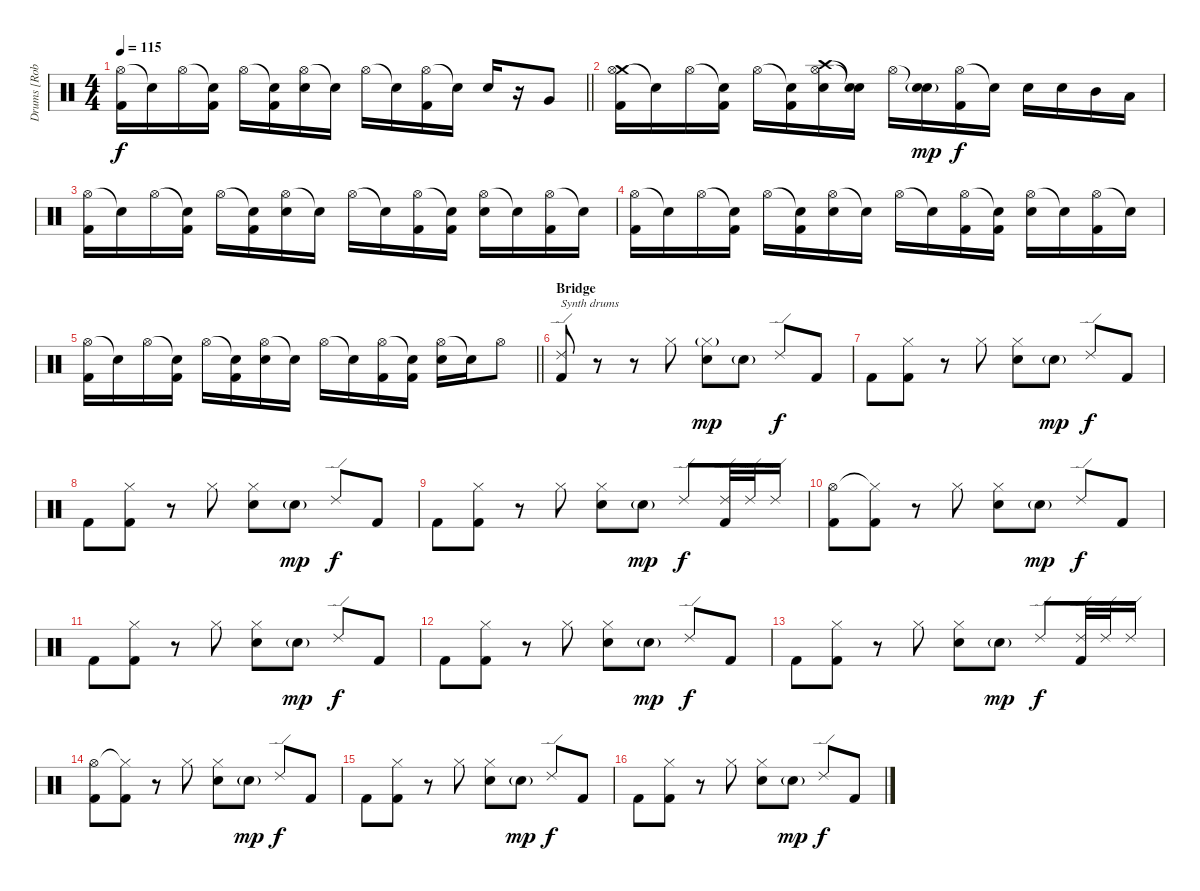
\track ("Drums [Rob Bourdon]" "Drums [Rob") {instrument percussion}
\staff {score}
\articulation defaults
\ts (4 4)
\tempo 115
\clef neutral
\barLineRight lightlight
\ks c
("Hi-Hat (open)" "Kick (hit) 2").16{dy f} "Snare (hit)"{t}.16 "Hi-Hat (open)".16 ("Snare (hit)"{t} "Kick (hit) 2").16 "Hi-Hat (open)".16 ("Snare (hit)"{t} "Kick (hit) 2").16 ("Hi-Hat (open)" "Electric Snare (hit)").16 "Snare (hit)"{t}.16 "Hi-Hat (open)".16 "Snare (hit)"{t}.16 ("Hi-Hat (open)" "Kick (hit) 2").16 "Snare (hit)"{t}.16 "Electric Snare (hit)".16 r.16 "Very Low Tom (hit)".8 |
("Crash medium (hit)" "Hi-Hat (open)" "Kick (hit) 2").16 "Snare (hit)"{t}.16 "Hi-Hat (open)".16 ("Snare (hit)"{t} "Kick (hit) 2").16 "Hi-Hat (open)".16 ("Snare (hit)"{t} "Kick (hit) 2").16 ("Crash high (hit)" "Hi-Hat (open)" "Electric Snare (hit)").16 ("Snare (hit)"{t} "Snare (hit)"{t}).16 "Hi-Hat (open)".16 ("Snare (hit)"{t} "Electric Snare (hit)"{g}).16{dy mp} ("Hi-Hat (open)" "Kick (hit) 2").16{dy f} "Snare (hit)"{t}.16 "Electric Snare (hit)".16 "Electric Snare (hit)".16 "Mid Tom (hit)".16 "Low Tom (hit)".16 |
("Hi-Hat (open)" "Kick (hit) 2").16 "Snare (hit)"{t}.16 "Hi-Hat (open)".16 ("Snare (hit)"{t} "Kick (hit) 2").16 "Hi-Hat (open)".16 ("Snare (hit)"{t} "Kick (hit) 2").16 ("Hi-Hat (open)" "Electric Snare (hit)").16 "Snare (hit)"{t}.16 "Hi-Hat (open)".16 "Snare (hit)"{t}.16 ("Hi-Hat (open)" "Kick (hit) 2").16 ("Snare (hit)"{t} "Kick (hit) 2").16 ("Hi-Hat (open)" "Electric Snare (hit)").16 "Snare (hit)"{t}.16 ("Hi-Hat (open)" "Kick (hit) 2").16 "Snare (hit)"{t}.16 |
("Hi-Hat (open)" "Kick (hit) 2").16 "Snare (hit)"{t}.16 "Hi-Hat (open)".16 ("Snare (hit)"{t} "Kick (hit) 2").16 "Hi-Hat (open)".16 ("Snare (hit)"{t} "Kick (hit) 2").16 ("Hi-Hat (open)" "Electric Snare (hit)").16 "Snare (hit)"{t}.16 "Hi-Hat (open)".16 "Snare (hit)"{t}.16 ("Hi-Hat (open)" "Kick (hit) 2").16 ("Snare (hit)"{t} "Kick (hit) 2").16 ("Hi-Hat (open)" "Electric Snare (hit)").16 "Snare (hit)"{t}.16 ("Hi-Hat (open)" "Kick (hit) 2").16 "Snare (hit)"{t}.16 |
\barLineRight lightlight
("Hi-Hat (open)" "Kick (hit) 2").16 "Snare (hit)"{t}.16 "Hi-Hat (open)".16 ("Snare (hit)"{t} "Kick (hit) 2").16 "Hi-Hat (open)".16 ("Snare (hit)"{t} "Kick (hit) 2").16 ("Hi-Hat (open)" "Electric Snare (hit)").16 "Snare (hit)"{t}.16 "Hi-Hat (open)".16 "Snare (hit)"{t}.16 ("Hi-Hat (open)" "Kick (hit) 2").16 ("Snare (hit)"{t} "Kick (hit) 2").16 ("Hi-Hat (open)" "Electric Snare (hit)").16 "Snare (hit)"{t}.16 "Hi-Hat (open)".8 |
\section ("" "Bridge")
("Ride (edge) 2" "Kick (hit) 2").8{txt "Synth drums" volume 6} r.8 r.8 "Hi-Hat (closed)".8 ("Hi-Hat (closed)"{g} "Electric Snare (hit)").8{dy mp volume 6} "Electric Snare (hit)"{g}.8 "Ride (edge) 2".8{dy f} "Kick (hit) 2".8 |
"Kick (hit) 2".8{volume 6} ("Hi-Hat (closed)" "Kick (hit) 2").8 r.8 "Hi-Hat (closed)".8 ("Hi-Hat (closed)" "Electric Snare (hit)").8{volume 6} "Electric Snare (hit)"{g}.8{dy mp} "Ride (edge) 2".8{dy f} "Kick (hit) 2".8 |
"Kick (hit) 2".8{volume 6} ("Hi-Hat (closed)" "Kick (hit) 2").8 r.8 "Hi-Hat (closed)".8 ("Hi-Hat (closed)" "Electric Snare (hit)").8{volume 6} "Electric Snare (hit)"{g}.8{dy mp} "Ride (edge) 2".8{dy f} "Kick (hit) 2".8 |
"Kick (hit) 2".8{volume 6} ("Hi-Hat (closed)" "Kick (hit) 2").8 r.8 "Hi-Hat (closed)".8 ("Hi-Hat (closed)" "Electric Snare (hit)").8{volume 6} "Electric Snare (hit)"{g}.8{dy mp} "Ride (edge) 2".8{dy f} ("Ride (edge) 2" "Kick (hit) 2").32 "Ride (edge) 2".32 "Ride (edge) 2".16 |
("Hi-Hat (open)" "Kick (hit) 2").8{volume 6} ("Hi-Hat (closed)"{t} "Kick (hit) 2").8 r.8 "Hi-Hat (closed)".8 ("Hi-Hat (closed)" "Electric Snare (hit)").8{volume 6} "Electric Snare (hit)"{g}.8{dy mp} "Ride (edge) 2".8{dy f} "Kick (hit) 2".8 |
"Kick (hit) 2".8{volume 6} ("Hi-Hat (closed)" "Kick (hit) 2").8 r.8 "Hi-Hat (closed)".8 ("Hi-Hat (closed)" "Electric Snare (hit)").8{volume 6} "Electric Snare (hit)"{g}.8{dy mp} "Ride (edge) 2".8{dy f} "Kick (hit) 2".8 |
"Kick (hit) 2".8{volume 6} ("Hi-Hat (closed)" "Kick (hit) 2").8 r.8 "Hi-Hat (closed)".8 ("Hi-Hat (closed)" "Electric Snare (hit)").8{volume 6} "Electric Snare (hit)"{g}.8{dy mp} "Ride (edge) 2".8{dy f} "Kick (hit) 2".8 |
"Kick (hit) 2".8{volume 6} ("Hi-Hat (closed)" "Kick (hit) 2").8 r.8 "Hi-Hat (closed)".8 ("Hi-Hat (closed)" "Electric Snare (hit)").8{volume 6} "Electric Snare (hit)"{g}.8{dy mp} "Ride (edge) 2".8{dy f} ("Ride (edge) 2" "Kick (hit) 2").32 "Ride (edge) 2".32 "Ride (edge) 2".16 |
("Hi-Hat (open)" "Kick (hit) 2").8{volume 6} ("Hi-Hat (closed)"{t} "Kick (hit) 2").8 r.8 "Hi-Hat (closed)".8 ("Hi-Hat (closed)" "Electric Snare (hit)").8{volume 6} "Electric Snare (hit)"{g}.8{dy mp} "Ride (edge) 2".8{dy f} "Kick (hit) 2".8 |
"Kick (hit) 2".8{volume 6} ("Hi-Hat (closed)" "Kick (hit) 2").8 r.8 "Hi-Hat (closed)".8 ("Hi-Hat (closed)" "Electric Snare (hit)").8{volume 6} "Electric Snare (hit)"{g}.8{dy mp} "Ride (edge) 2".8{dy f} "Kick (hit) 2".8 |
"Kick (hit) 2".8{volume 6} ("Hi-Hat (closed)" "Kick (hit) 2").8 r.8 "Hi-Hat (closed)".8 ("Hi-Hat (closed)" "Electric Snare (hit)").8{volume 6} "Electric Snare (hit)"{g}.8{dy mp} "Ride (edge) 2".8{dy f} "Kick (hit) 2".8
